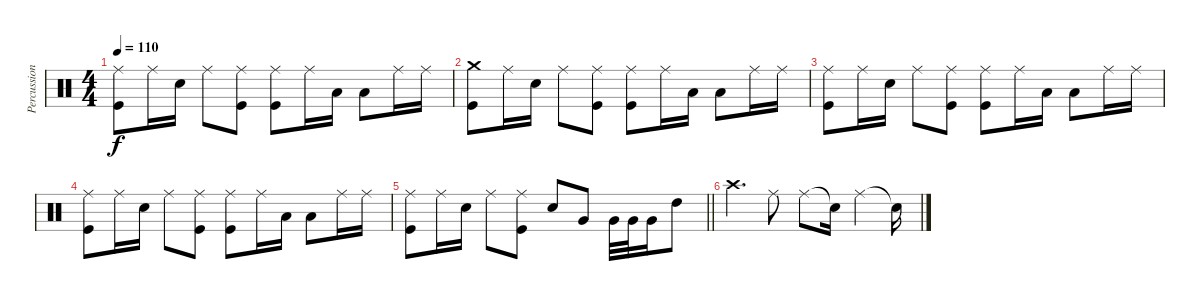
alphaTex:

\track ("Percussion" "Percussion") {instrument percussion}
\staff {score}
\articulation defaults
\ts (4 4)
\tempo 110
\clef neutral
\ks c
("Ride (middle)" "Kick (hit)").8{dy f} "Ride (middle)".16 "Snare (hit) 2".16 "Ride (middle)".8 ("Ride (middle)" "Kick (hit)").8 ("Ride (middle)" "Kick (hit)").8 "Ride (middle)".16 "Low Floor Tom (hit)".16 "Low Floor Tom (hit)".8 "Ride (middle)".16 "Ride (middle)".16 |
("Crash medium (hit)" "Kick (hit)").8 "Ride (middle)".16 "Snare (hit) 2".16 "Ride (middle)".8 ("Ride (middle)" "Kick (hit)").8 ("Ride (middle)" "Kick (hit)").8 "Ride (middle)".16 "Low Floor Tom (hit)".16 "Low Floor Tom (hit)".8 "Ride (middle)".16 "Ride (middle)".16 |
("Ride (middle)" "Kick (hit)").8 "Ride (middle)".16 "Snare (hit) 2".16 "Ride (middle)".8 ("Ride (middle)" "Kick (hit)").8 ("Ride (middle)" "Kick (hit)").8 "Ride (middle)".16 "Low Floor Tom (hit)".16 "Low Floor Tom (hit)".8 "Ride (middle)".16 "Ride (middle)".16 |
("Ride (middle)" "Kick (hit)").8 "Ride (middle)".16 "Snare (hit) 2".16 "Ride (middle)".8 ("Ride (middle)" "Kick (hit)").8 ("Ride (middle)" "Kick (hit)").8 "Ride (middle)".16 "Low Floor Tom (hit)".16 "Low Floor Tom (hit)".8 "Ride (middle)".16 "Ride (middle)".16 |
\barLineRight lightlight
("Ride (middle)" "Kick (hit)").8 "Ride (middle)".16 "Snare (hit) 2".16 "Ride (middle)".8 ("Ride (middle)" "Kick (hit)").8 "Snare (hit) 2".8 "Very Low Tom (hit)".8 "Very Low Tom (hit)".32 "Very Low Tom (hit)".32 "Very Low Tom (hit)".16 "High Tom (hit)".8 |
"Crash high (hit)".4{d} "Ride (middle)".8 "Ride (middle)".8 "Snare (hit)"{t}.16 "Ride (middle)".4 "Snare (hit)"{t}.16
